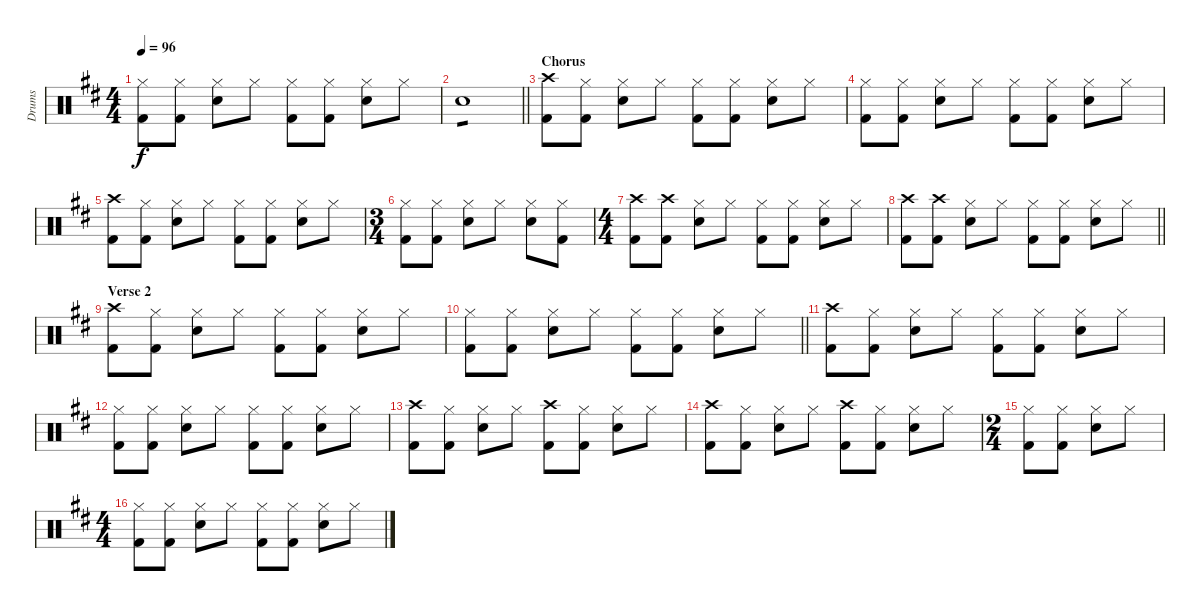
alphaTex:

\track ("Drums" "Drums") {instrument percussion}
\staff {score}
\articulation defaults
\ts (4 4)
\tempo 96
\clef neutral
\ks d
("Hi-Hat (closed)" "Kick (hit) 2").8{dy f} ("Hi-Hat (closed)" "Kick (hit) 2").8 ("Hi-Hat (closed)" "Electric Snare (hit)").8 "Hi-Hat (closed)".8 ("Hi-Hat (closed)" "Kick (hit) 2").8 ("Hi-Hat (closed)" "Kick (hit) 2").8 ("Hi-Hat (closed)" "Electric Snare (hit)").8 "Hi-Hat (closed)".8 |
\barLineRight lightlight "Electric Snare (hit)".1{tp 1}
|
\section ("" "Chorus")
("Crash high (hit)" "Kick (hit) 2").8 ("Hi-Hat (closed)" "Kick (hit) 2").8 ("Hi-Hat (closed)" "Electric Snare (hit)").8 "Hi-Hat (closed)".8 ("Hi-Hat (closed)" "Kick (hit) 2").8 ("Hi-Hat (closed)" "Kick (hit) 2").8 ("Hi-Hat (closed)" "Electric Snare (hit)").8 "Hi-Hat (closed)".8 |
("Hi-Hat (closed)" "Kick (hit) 2").8 ("Hi-Hat (closed)" "Kick (hit) 2").8 ("Hi-Hat (closed)" "Electric Snare (hit)").8 "Hi-Hat (closed)".8 ("Hi-Hat (closed)" "Kick (hit) 2").8 ("Hi-Hat (closed)" "Kick (hit) 2").8 ("Hi-Hat (closed)" "Electric Snare (hit)").8 "Hi-Hat (closed)".8 |
("Crash high (hit)" "Kick (hit) 2").8 ("Hi-Hat (closed)" "Kick (hit) 2").8 ("Hi-Hat (closed)" "Electric Snare (hit)").8 "Hi-Hat (closed)".8 ("Hi-Hat (closed)" "Kick (hit) 2").8 ("Hi-Hat (closed)" "Kick (hit) 2").8 ("Hi-Hat (closed)" "Electric Snare (hit)").8 "Hi-Hat (closed)".8 |
\ts (3 4)
("Hi-Hat (closed)" "Kick (hit) 2").8 ("Hi-Hat (closed)" "Kick (hit) 2").8 ("Hi-Hat (closed)" "Electric Snare (hit)").8 "Hi-Hat (closed)".8 ("Hi-Hat (closed)" "Electric Snare (hit)").8 ("Hi-Hat (closed)" "Kick (hit) 2").8 |
\ts (4 4)
("Crash high (hit)" "Kick (hit) 2").8 ("Crash high (hit)" "Kick (hit) 2").8 ("Hi-Hat (closed)" "Electric Snare (hit)").8 "Hi-Hat (closed)".8 ("Hi-Hat (closed)" "Kick (hit) 2").8 ("Hi-Hat (closed)" "Kick (hit) 2").8 ("Hi-Hat (closed)" "Electric Snare (hit)").8 "Hi-Hat (closed)".8 |
\barLineRight lightlight
("Crash high (hit)" "Kick (hit) 2").8 ("Crash high (hit)" "Kick (hit) 2").8 ("Hi-Hat (closed)" "Electric Snare (hit)").8 "Hi-Hat (closed)".8 ("Hi-Hat (closed)" "Kick (hit) 2").8 ("Hi-Hat (closed)" "Kick (hit) 2").8 ("Hi-Hat (closed)" "Electric Snare (hit)").8 "Hi-Hat (closed)".8 |
\section ("" "Verse 2")
("Crash high (hit)" "Kick (hit) 2").8 ("Hi-Hat (closed)" "Kick (hit) 2").8 ("Hi-Hat (closed)" "Electric Snare (hit)").8 "Hi-Hat (closed)".8 ("Hi-Hat (closed)" "Kick (hit) 2").8 ("Hi-Hat (closed)" "Kick (hit) 2").8 ("Hi-Hat (closed)" "Electric Snare (hit)").8 "Hi-Hat (closed)".8 |
\barLineRight lightlight
("Hi-Hat (closed)" "Kick (hit) 2").8 ("Hi-Hat (closed)" "Kick (hit) 2").8 ("Hi-Hat (closed)" "Electric Snare (hit)").8 "Hi-Hat (closed)".8 ("Hi-Hat (closed)" "Kick (hit) 2").8 ("Hi-Hat (closed)" "Kick (hit) 2").8 ("Hi-Hat (closed)" "Electric Snare (hit)").8 "Hi-Hat (closed)".8 |
("Crash high (hit)" "Kick (hit) 2").8 ("Hi-Hat (closed)" "Kick (hit) 2").8 ("Hi-Hat (closed)" "Electric Snare (hit)").8 "Hi-Hat (closed)".8 ("Hi-Hat (closed)" "Kick (hit) 2").8 ("Hi-Hat (closed)" "Kick (hit) 2").8 ("Hi-Hat (closed)" "Electric Snare (hit)").8 "Hi-Hat (closed)".8 |
("Hi-Hat (closed)" "Kick (hit) 2").8 ("Hi-Hat (closed)" "Kick (hit) 2").8 ("Hi-Hat (closed)" "Electric Snare (hit)").8 "Hi-Hat (closed)".8 ("Hi-Hat (closed)" "Kick (hit) 2").8 ("Hi-Hat (closed)" "Kick (hit) 2").8 ("Hi-Hat (closed)" "Electric Snare (hit)").8 "Hi-Hat (closed)".8 |
("Crash high (hit)" "Kick (hit) 2").8 ("Hi-Hat (closed)" "Kick (hit) 2").8 ("Hi-Hat (closed)" "Electric Snare (hit)").8 "Hi-Hat (closed)".8 ("Crash high (hit)" "Kick (hit) 2").8 ("Hi-Hat (closed)" "Kick (hit) 2").8 ("Hi-Hat (closed)" "Electric Snare (hit)").8 "Hi-Hat (closed)".8 |
("Crash high (hit)" "Kick (hit) 2").8 ("Hi-Hat (closed)" "Kick (hit) 2").8 ("Hi-Hat (closed)" "Electric Snare (hit)").8 "Hi-Hat (closed)".8 ("Crash high (hit)" "Kick (hit) 2").8 ("Hi-Hat (closed)" "Kick (hit) 2").8 ("Hi-Hat (closed)" "Electric Snare (hit)").8 "Hi-Hat (closed)".8 |
\ts (2 4)
("Hi-Hat (closed)" "Kick (hit) 2").8 ("Hi-Hat (closed)" "Kick (hit) 2").8 ("Hi-Hat (closed)" "Electric Snare (hit)").8 "Hi-Hat (closed)".8 |
\ts (4 4)
("Hi-Hat (closed)" "Kick (hit) 2").8 ("Hi-Hat (closed)" "Kick (hit) 2").8 ("Hi-Hat (closed)" "Electric Snare (hit)").8 "Hi-Hat (closed)".8 ("Hi-Hat (closed)" "Kick (hit) 2").8 ("Hi-Hat (closed)" "Kick (hit) 2").8 ("Hi-Hat (closed)" "Electric Snare (hit)").8 "Hi-Hat (closed)".8
